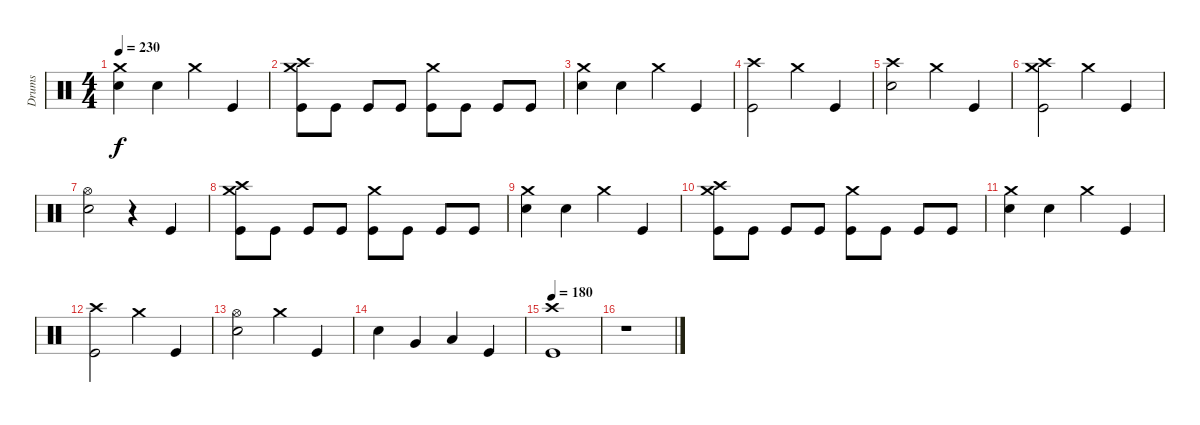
\track ("Drums" "Drums") {instrument percussion}
\staff {score}
\articulation defaults
\ts (4 4)
\tempo 230
\clef neutral
\ks c
("Crash medium (hit)" "Electric Snare (hit)").4{dy f} "Electric Snare (hit)".4 "Crash medium (hit)".4 "Kick (hit)".4 |
("Crash high (hit)" "Crash medium (hit)" "Kick (hit)").8 "Kick (hit)".8 "Kick (hit)".8 "Kick (hit)".8 ("Crash medium (hit)" "Kick (hit)").8 "Kick (hit)".8 "Kick (hit)".8 "Kick (hit)".8 |
("Crash medium (hit)" "Electric Snare (hit)").4 "Electric Snare (hit)".4 "Crash medium (hit)".4 "Kick (hit)".4 |
("Crash high (hit)" "Kick (hit)").2 "Crash medium (hit)".4 "Kick (hit)".4 |
("Crash high (hit)" "Electric Snare (hit)").2 "Crash medium (hit)".4 "Kick (hit)".4 |
("Crash high (hit)" "Crash medium (hit)" "Kick (hit)").2 "Crash medium (hit)".4 "Kick (hit)".4 |
("Hi-Hat (open)" "Electric Snare (hit)").2 r.4 "Kick (hit)".4 |
("Crash high (hit)" "Crash medium (hit)" "Kick (hit)").8 "Kick (hit)".8 "Kick (hit)".8 "Kick (hit)".8 ("Crash medium (hit)" "Kick (hit)").8 "Kick (hit)".8 "Kick (hit)".8 "Kick (hit)".8 |
("Crash medium (hit)" "Electric Snare (hit)").4 "Electric Snare (hit)".4 "Crash medium (hit)".4 "Kick (hit)".4 |
("Crash high (hit)" "Crash medium (hit)" "Kick (hit)").8 "Kick (hit)".8 "Kick (hit)".8 "Kick (hit)".8 ("Crash medium (hit)" "Kick (hit)").8 "Kick (hit)".8 "Kick (hit)".8 "Kick (hit)".8 |
("Crash medium (hit)" "Electric Snare (hit)").4 "Electric Snare (hit)".4 "Crash medium (hit)".4 "Kick (hit)".4 |
("Crash high (hit)" "Kick (hit)").2 "Crash medium (hit)".4 "Kick (hit)".4 |
("Hi-Hat (open)" "Electric Snare (hit)").2 "Crash medium (hit)".4 "Kick (hit)".4 |
"Electric Snare (hit)".4 "Very Low Tom (hit)".4 "Low Floor Tom (hit)".4 "Kick (hit)".4 |
\tempo 180
("Crash high (hit)" "Kick (hit)").1 |
r.1
